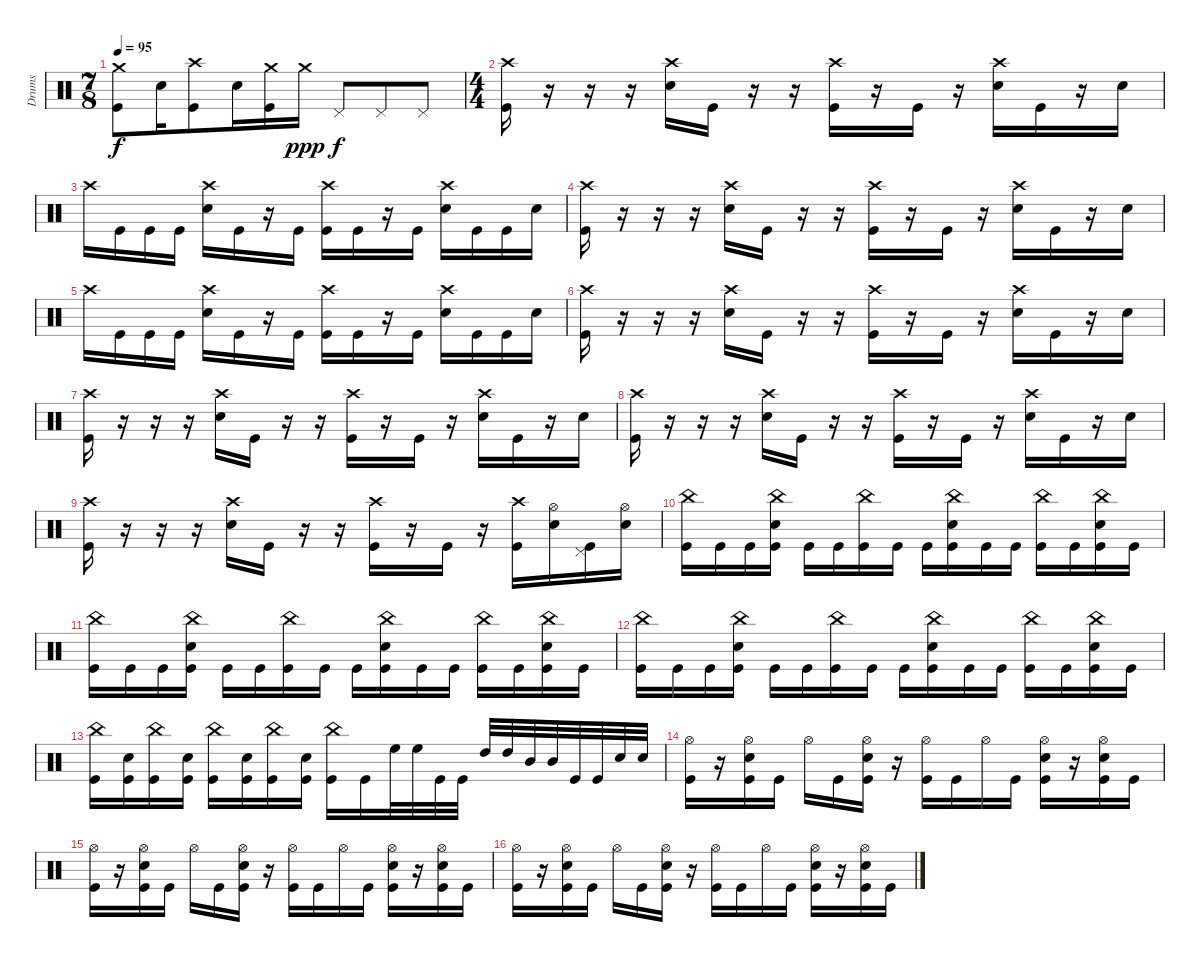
\track ("Drums" "Drums") {instrument percussion}
\staff {score}
\articulation defaults
\ts (7 8)
\tempo 95
\clef neutral
\ks c
("Crash medium (hit)" "Kick (hit)").8{dy f} "Electric Snare (hit)".16 ("Crash high (hit)" "Kick (hit)").8 "Electric Snare (hit)".16 ("Crash medium (hit)" "Kick (hit)").16 "Crash medium (hit)".16{dy ppp} "Pedal Hi-Hat (hit)".8{dy f} "Pedal Hi-Hat (hit)".8 "Pedal Hi-Hat (hit)".8 |
\ts (4 4)
("Crash high (hit)" "Kick (hit)").16 r.16 r.16 r.16 ("Crash high (hit)" "Electric Snare (hit)").16 "Kick (hit)".16 r.16 r.16 ("Crash high (hit)" "Kick (hit)").16 r.16 "Kick (hit)".16 r.16 ("Crash high (hit)" "Electric Snare (hit)").16 "Kick (hit)".16 r.16 "Electric Snare (hit)".16 |
"Crash high (hit)".16 "Kick (hit)".16 "Kick (hit)".16 "Kick (hit)".16 ("Crash high (hit)" "Electric Snare (hit)").16 "Kick (hit)".16 r.16 "Kick (hit)".16 ("Crash high (hit)" "Kick (hit)").16 "Kick (hit)".16 r.16 "Kick (hit)".16 ("Crash high (hit)" "Electric Snare (hit)").16 "Kick (hit)".16 "Kick (hit)".16 "Electric Snare (hit)".16 |
("Crash high (hit)" "Kick (hit)").16 r.16 r.16 r.16 ("Crash high (hit)" "Electric Snare (hit)").16 "Kick (hit)".16 r.16 r.16 ("Crash high (hit)" "Kick (hit)").16 r.16 "Kick (hit)".16 r.16 ("Crash high (hit)" "Electric Snare (hit)").16 "Kick (hit)".16 r.16 "Electric Snare (hit)".16 |
"Crash high (hit)".16 "Kick (hit)".16 "Kick (hit)".16 "Kick (hit)".16 ("Crash high (hit)" "Electric Snare (hit)").16 "Kick (hit)".16 r.16 "Kick (hit)".16 ("Crash high (hit)" "Kick (hit)").16 "Kick (hit)".16 r.16 "Kick (hit)".16 ("Crash high (hit)" "Electric Snare (hit)").16 "Kick (hit)".16 "Kick (hit)".16 "Electric Snare (hit)".16 |
("Crash high (hit)" "Kick (hit)").16 r.16 r.16 r.16 ("Crash high (hit)" "Electric Snare (hit)").16 "Kick (hit)".16 r.16 r.16 ("Crash high (hit)" "Kick (hit)").16 r.16 "Kick (hit)".16 r.16 ("Crash high (hit)" "Electric Snare (hit)").16 "Kick (hit)".16 r.16 "Electric Snare (hit)".16 |
("Crash high (hit)" "Kick (hit)").16 r.16 r.16 r.16 ("Crash high (hit)" "Electric Snare (hit)").16 "Kick (hit)".16 r.16 r.16 ("Crash high (hit)" "Kick (hit)").16 r.16 "Kick (hit)".16 r.16 ("Crash high (hit)" "Electric Snare (hit)").16 "Kick (hit)".16 r.16 "Electric Snare (hit)".16 |
("Crash high (hit)" "Kick (hit)").16 r.16 r.16 r.16 ("Crash high (hit)" "Electric Snare (hit)").16 "Kick (hit)".16 r.16 r.16 ("Crash high (hit)" "Kick (hit)").16 r.16 "Kick (hit)".16 r.16 ("Crash high (hit)" "Electric Snare (hit)").16 "Kick (hit)".16 r.16 "Electric Snare (hit)".16 |
("Crash high (hit)" "Kick (hit)").16 r.16 r.16 r.16 ("Crash high (hit)" "Electric Snare (hit)").16 "Kick (hit)".16 r.16 r.16 ("Crash high (hit)" "Kick (hit)").16 r.16 "Kick (hit)".16 r.16 ("Crash high (hit)" "Kick (hit)").16 ("Hi-Hat (open)" "Electric Snare (hit)").16 ("Pedal Hi-Hat (hit)" "Kick (hit)").16 ("Hi-Hat (open)" "Electric Snare (hit)").16 |
("China (hit)" "Kick (hit)").16 "Kick (hit)".16 "Kick (hit)".16 ("China (hit)" "Electric Snare (hit)" "Kick (hit)").16 "Kick (hit)".16 "Kick (hit)".16 ("China (hit)" "Kick (hit)").16 "Kick (hit)".16 "Kick (hit)".16 ("China (hit)" "Electric Snare (hit)" "Kick (hit)").16 "Kick (hit)".16 "Kick (hit)".16 ("China (hit)" "Kick (hit)").16 "Kick (hit)".16 ("China (hit)" "Electric Snare (hit)" "Kick (hit)").16 "Kick (hit)".16 |
("China (hit)" "Kick (hit)").16 "Kick (hit)".16 "Kick (hit)".16 ("China (hit)" "Electric Snare (hit)" "Kick (hit)").16 "Kick (hit)".16 "Kick (hit)".16 ("China (hit)" "Kick (hit)").16 "Kick (hit)".16 "Kick (hit)".16 ("China (hit)" "Electric Snare (hit)" "Kick (hit)").16 "Kick (hit)".16 "Kick (hit)".16 ("China (hit)" "Kick (hit)").16 "Kick (hit)".16 ("China (hit)" "Electric Snare (hit)" "Kick (hit)").16 "Kick (hit)".16 |
("China (hit)" "Kick (hit)").16 "Kick (hit)".16 "Kick (hit)".16 ("China (hit)" "Electric Snare (hit)" "Kick (hit)").16 "Kick (hit)".16 "Kick (hit)".16 ("China (hit)" "Kick (hit)").16 "Kick (hit)".16 "Kick (hit)".16 ("China (hit)" "Electric Snare (hit)" "Kick (hit)").16 "Kick (hit)".16 "Kick (hit)".16 ("China (hit)" "Kick (hit)").16 "Kick (hit)".16 ("China (hit)" "Electric Snare (hit)" "Kick (hit)").16 "Kick (hit)".16 |
("China (hit)" "Kick (hit)").16 ("Electric Snare (hit)" "Kick (hit)").16 ("China (hit)" "Kick (hit)").16 ("Electric Snare (hit)" "Kick (hit)").16 ("China (hit)" "Kick (hit)").16 ("Electric Snare (hit)" "Kick (hit)").16 ("China (hit)" "Kick (hit)").16 ("Electric Snare (hit)" "Kick (hit)").16 ("China (hit)" "Kick (hit)").16 "Kick (hit)".16 "High Floor Tom (hit)".32 "High Floor Tom (hit)".32 "Kick (hit)".32 "Kick (hit)".32 "High Tom (hit)".32 "High Tom (hit)".32 "Mid Tom (hit)".32 "Mid Tom (hit)".32 "Kick (hit)".32 "Kick (hit)".32 "Electric Snare (hit)".32 "Electric Snare (hit)".32 |
("Hi-Hat (open)" "Kick (hit)").16 r.16 ("Hi-Hat (open)" "Electric Snare (hit)" "Kick (hit)").16 "Kick (hit)".16 "Hi-Hat (open)".16 "Kick (hit)".16 ("Hi-Hat (open)" "Electric Snare (hit)" "Kick (hit)").16 r.16 ("Hi-Hat (open)" "Kick (hit)").16 "Kick (hit)".16 "Hi-Hat (open)".16 "Kick (hit)".16 ("Hi-Hat (open)" "Electric Snare (hit)" "Kick (hit)").16 r.16 ("Hi-Hat (open)" "Electric Snare (hit)" "Kick (hit)").16 "Kick (hit)".16 |
("Hi-Hat (open)" "Kick (hit)").16 r.16 ("Hi-Hat (open)" "Electric Snare (hit)" "Kick (hit)").16 "Kick (hit)".16 "Hi-Hat (open)".16 "Kick (hit)".16 ("Hi-Hat (open)" "Electric Snare (hit)" "Kick (hit)").16 r.16 ("Hi-Hat (open)" "Kick (hit)").16 "Kick (hit)".16 "Hi-Hat (open)".16 "Kick (hit)".16 ("Hi-Hat (open)" "Electric Snare (hit)" "Kick (hit)").16 r.16 ("Hi-Hat (open)" "Electric Snare (hit)" "Kick (hit)").16 "Kick (hit)".16 |
("Hi-Hat (open)" "Kick (hit)").16 r.16 ("Hi-Hat (open)" "Electric Snare (hit)" "Kick (hit)").16 "Kick (hit)".16 "Hi-Hat (open)".16 "Kick (hit)".16 ("Hi-Hat (open)" "Electric Snare (hit)" "Kick (hit)").16 r.16 ("Hi-Hat (open)" "Kick (hit)").16 "Kick (hit)".16 "Hi-Hat (open)".16 "Kick (hit)".16 ("Hi-Hat (open)" "Electric Snare (hit)" "Kick (hit)").16 r.16 ("Hi-Hat (open)" "Electric Snare (hit)" "Kick (hit)").16 "Kick (hit)".16
